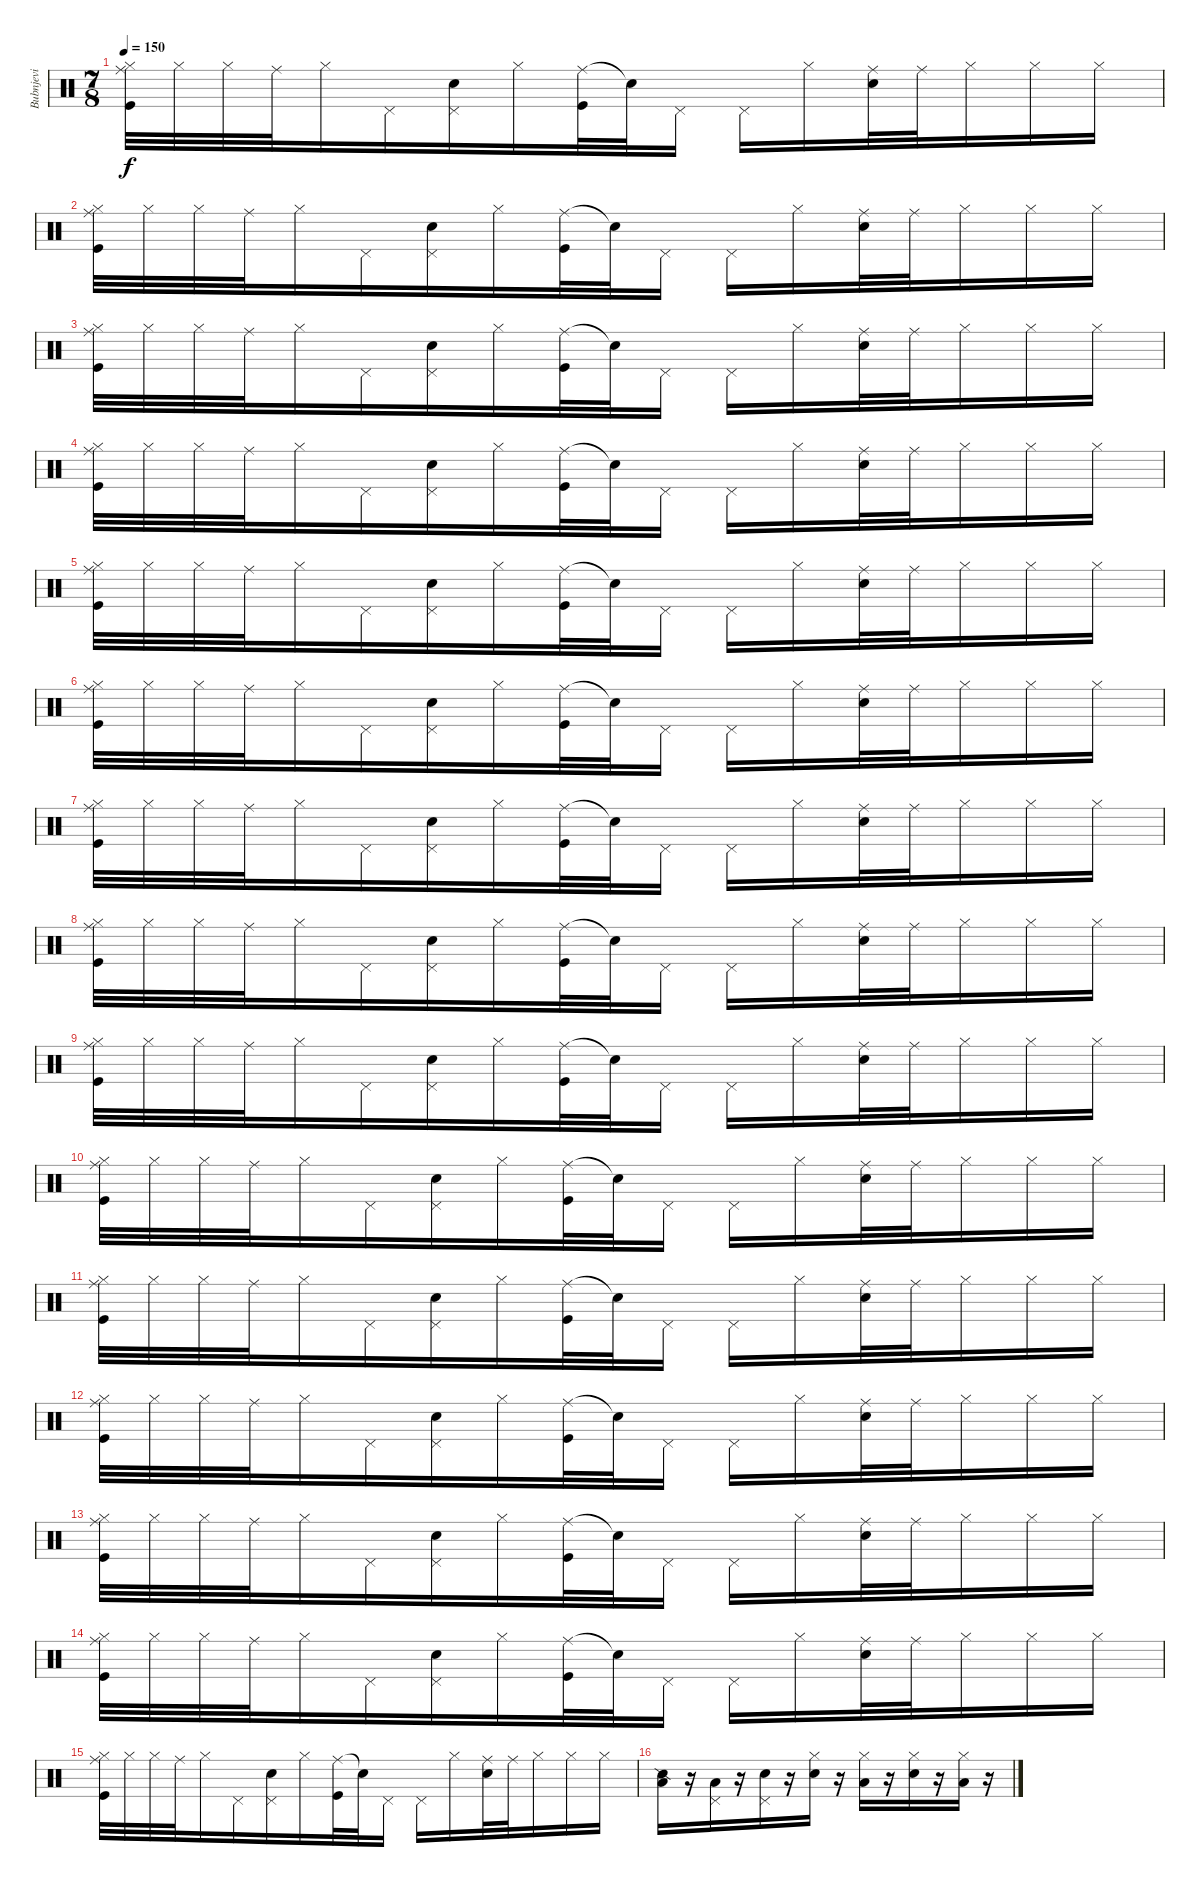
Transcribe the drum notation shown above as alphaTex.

\track ("Bubnjevi" "Bubnjevi") {instrument percussion}
\staff {score}
\articulation defaults
\ts (7 8)
\tempo 150
\clef neutral
\ks c
("Hi-Hat (closed)" "Ride (middle)" "Kick (hit)").32{dy f} "Hi-Hat (closed)".32 "Hi-Hat (closed)".32 "Ride (middle)".32 "Hi-Hat (closed)".16 "Pedal Hi-Hat (hit)".16 ("Pedal Hi-Hat (hit)" "Snare (hit) 2").16 "Hi-Hat (closed)".16 ("Ride (middle)" "Kick (hit)").32 "Snare (hit)"{t}.32 "Pedal Hi-Hat (hit)".16 "Pedal Hi-Hat (hit)".16 "Hi-Hat (closed)".16 ("Ride (middle)" "Snare (hit) 2").32 "Ride (middle)".32 "Hi-Hat (closed)".16 "Hi-Hat (closed)".16 "Hi-Hat (closed)".16 |
("Hi-Hat (closed)" "Ride (middle)" "Kick (hit)").32 "Hi-Hat (closed)".32 "Hi-Hat (closed)".32 "Ride (middle)".32 "Hi-Hat (closed)".16 "Pedal Hi-Hat (hit)".16 ("Pedal Hi-Hat (hit)" "Snare (hit) 2").16 "Hi-Hat (closed)".16 ("Ride (middle)" "Kick (hit)").32 "Snare (hit)"{t}.32 "Pedal Hi-Hat (hit)".16 "Pedal Hi-Hat (hit)".16 "Hi-Hat (closed)".16 ("Ride (middle)" "Snare (hit) 2").32 "Ride (middle)".32 "Hi-Hat (closed)".16 "Hi-Hat (closed)".16 "Hi-Hat (closed)".16 |
("Hi-Hat (closed)" "Ride (middle)" "Kick (hit)").32 "Hi-Hat (closed)".32 "Hi-Hat (closed)".32 "Ride (middle)".32 "Hi-Hat (closed)".16 "Pedal Hi-Hat (hit)".16 ("Pedal Hi-Hat (hit)" "Snare (hit) 2").16 "Hi-Hat (closed)".16 ("Ride (middle)" "Kick (hit)").32 "Snare (hit)"{t}.32 "Pedal Hi-Hat (hit)".16 "Pedal Hi-Hat (hit)".16 "Hi-Hat (closed)".16 ("Ride (middle)" "Snare (hit) 2").32 "Ride (middle)".32 "Hi-Hat (closed)".16 "Hi-Hat (closed)".16 "Hi-Hat (closed)".16 |
("Hi-Hat (closed)" "Ride (middle)" "Kick (hit)").32 "Hi-Hat (closed)".32 "Hi-Hat (closed)".32 "Ride (middle)".32 "Hi-Hat (closed)".16 "Pedal Hi-Hat (hit)".16 ("Pedal Hi-Hat (hit)" "Snare (hit) 2").16 "Hi-Hat (closed)".16 ("Ride (middle)" "Kick (hit)").32 "Snare (hit)"{t}.32 "Pedal Hi-Hat (hit)".16 "Pedal Hi-Hat (hit)".16 "Hi-Hat (closed)".16 ("Ride (middle)" "Snare (hit) 2").32 "Ride (middle)".32 "Hi-Hat (closed)".16 "Hi-Hat (closed)".16 "Hi-Hat (closed)".16 |
("Hi-Hat (closed)" "Ride (middle)" "Kick (hit)").32 "Hi-Hat (closed)".32 "Hi-Hat (closed)".32 "Ride (middle)".32 "Hi-Hat (closed)".16 "Pedal Hi-Hat (hit)".16 ("Pedal Hi-Hat (hit)" "Snare (hit) 2").16 "Hi-Hat (closed)".16 ("Ride (middle)" "Kick (hit)").32 "Snare (hit)"{t}.32 "Pedal Hi-Hat (hit)".16 "Pedal Hi-Hat (hit)".16 "Hi-Hat (closed)".16 ("Ride (middle)" "Snare (hit) 2").32 "Ride (middle)".32 "Hi-Hat (closed)".16 "Hi-Hat (closed)".16 "Hi-Hat (closed)".16 |
("Hi-Hat (closed)" "Ride (middle)" "Kick (hit)").32 "Hi-Hat (closed)".32 "Hi-Hat (closed)".32 "Ride (middle)".32 "Hi-Hat (closed)".16 "Pedal Hi-Hat (hit)".16 ("Pedal Hi-Hat (hit)" "Snare (hit) 2").16 "Hi-Hat (closed)".16 ("Ride (middle)" "Kick (hit)").32 "Snare (hit)"{t}.32 "Pedal Hi-Hat (hit)".16 "Pedal Hi-Hat (hit)".16 "Hi-Hat (closed)".16 ("Ride (middle)" "Snare (hit) 2").32 "Ride (middle)".32 "Hi-Hat (closed)".16 "Hi-Hat (closed)".16 "Hi-Hat (closed)".16 |
("Hi-Hat (closed)" "Ride (middle)" "Kick (hit)").32 "Hi-Hat (closed)".32 "Hi-Hat (closed)".32 "Ride (middle)".32 "Hi-Hat (closed)".16 "Pedal Hi-Hat (hit)".16 ("Pedal Hi-Hat (hit)" "Snare (hit) 2").16 "Hi-Hat (closed)".16 ("Ride (middle)" "Kick (hit)").32 "Snare (hit)"{t}.32 "Pedal Hi-Hat (hit)".16 "Pedal Hi-Hat (hit)".16 "Hi-Hat (closed)".16 ("Ride (middle)" "Snare (hit) 2").32 "Ride (middle)".32 "Hi-Hat (closed)".16 "Hi-Hat (closed)".16 "Hi-Hat (closed)".16 |
("Hi-Hat (closed)" "Ride (middle)" "Kick (hit)").32 "Hi-Hat (closed)".32 "Hi-Hat (closed)".32 "Ride (middle)".32 "Hi-Hat (closed)".16 "Pedal Hi-Hat (hit)".16 ("Pedal Hi-Hat (hit)" "Snare (hit) 2").16 "Hi-Hat (closed)".16 ("Ride (middle)" "Kick (hit)").32 "Snare (hit)"{t}.32 "Pedal Hi-Hat (hit)".16 "Pedal Hi-Hat (hit)".16 "Hi-Hat (closed)".16 ("Ride (middle)" "Snare (hit) 2").32 "Ride (middle)".32 "Hi-Hat (closed)".16 "Hi-Hat (closed)".16 "Hi-Hat (closed)".16 |
("Hi-Hat (closed)" "Ride (middle)" "Kick (hit)").32 "Hi-Hat (closed)".32 "Hi-Hat (closed)".32 "Ride (middle)".32 "Hi-Hat (closed)".16 "Pedal Hi-Hat (hit)".16 ("Pedal Hi-Hat (hit)" "Snare (hit) 2").16 "Hi-Hat (closed)".16 ("Ride (middle)" "Kick (hit)").32 "Snare (hit)"{t}.32 "Pedal Hi-Hat (hit)".16 "Pedal Hi-Hat (hit)".16 "Hi-Hat (closed)".16 ("Ride (middle)" "Snare (hit) 2").32 "Ride (middle)".32 "Hi-Hat (closed)".16 "Hi-Hat (closed)".16 "Hi-Hat (closed)".16 |
("Hi-Hat (closed)" "Ride (middle)" "Kick (hit)").32 "Hi-Hat (closed)".32 "Hi-Hat (closed)".32 "Ride (middle)".32 "Hi-Hat (closed)".16 "Pedal Hi-Hat (hit)".16 ("Pedal Hi-Hat (hit)" "Snare (hit) 2").16 "Hi-Hat (closed)".16 ("Ride (middle)" "Kick (hit)").32 "Snare (hit)"{t}.32 "Pedal Hi-Hat (hit)".16 "Pedal Hi-Hat (hit)".16 "Hi-Hat (closed)".16 ("Ride (middle)" "Snare (hit) 2").32 "Ride (middle)".32 "Hi-Hat (closed)".16 "Hi-Hat (closed)".16 "Hi-Hat (closed)".16 |
("Hi-Hat (closed)" "Ride (middle)" "Kick (hit)").32 "Hi-Hat (closed)".32 "Hi-Hat (closed)".32 "Ride (middle)".32 "Hi-Hat (closed)".16 "Pedal Hi-Hat (hit)".16 ("Pedal Hi-Hat (hit)" "Snare (hit) 2").16 "Hi-Hat (closed)".16 ("Ride (middle)" "Kick (hit)").32 "Snare (hit)"{t}.32 "Pedal Hi-Hat (hit)".16 "Pedal Hi-Hat (hit)".16 "Hi-Hat (closed)".16 ("Ride (middle)" "Snare (hit) 2").32 "Ride (middle)".32 "Hi-Hat (closed)".16 "Hi-Hat (closed)".16 "Hi-Hat (closed)".16 |
("Hi-Hat (closed)" "Ride (middle)" "Kick (hit)").32 "Hi-Hat (closed)".32 "Hi-Hat (closed)".32 "Ride (middle)".32 "Hi-Hat (closed)".16 "Pedal Hi-Hat (hit)".16 ("Pedal Hi-Hat (hit)" "Snare (hit) 2").16 "Hi-Hat (closed)".16 ("Ride (middle)" "Kick (hit)").32 "Snare (hit)"{t}.32 "Pedal Hi-Hat (hit)".16 "Pedal Hi-Hat (hit)".16 "Hi-Hat (closed)".16 ("Ride (middle)" "Snare (hit) 2").32 "Ride (middle)".32 "Hi-Hat (closed)".16 "Hi-Hat (closed)".16 "Hi-Hat (closed)".16 |
("Hi-Hat (closed)" "Ride (middle)" "Kick (hit)").32 "Hi-Hat (closed)".32 "Hi-Hat (closed)".32 "Ride (middle)".32 "Hi-Hat (closed)".16 "Pedal Hi-Hat (hit)".16 ("Pedal Hi-Hat (hit)" "Snare (hit) 2").16 "Hi-Hat (closed)".16 ("Ride (middle)" "Kick (hit)").32 "Snare (hit)"{t}.32 "Pedal Hi-Hat (hit)".16 "Pedal Hi-Hat (hit)".16 "Hi-Hat (closed)".16 ("Ride (middle)" "Snare (hit) 2").32 "Ride (middle)".32 "Hi-Hat (closed)".16 "Hi-Hat (closed)".16 "Hi-Hat (closed)".16 |
("Hi-Hat (closed)" "Ride (middle)" "Kick (hit)").32 "Hi-Hat (closed)".32 "Hi-Hat (closed)".32 "Ride (middle)".32 "Hi-Hat (closed)".16 "Pedal Hi-Hat (hit)".16 ("Pedal Hi-Hat (hit)" "Snare (hit) 2").16 "Hi-Hat (closed)".16 ("Ride (middle)" "Kick (hit)").32 "Snare (hit)"{t}.32 "Pedal Hi-Hat (hit)".16 "Pedal Hi-Hat (hit)".16 "Hi-Hat (closed)".16 ("Ride (middle)" "Snare (hit) 2").32 "Ride (middle)".32 "Hi-Hat (closed)".16 "Hi-Hat (closed)".16 "Hi-Hat (closed)".16 |
("Hi-Hat (closed)" "Ride (middle)" "Kick (hit)").32 "Hi-Hat (closed)".32 "Hi-Hat (closed)".32 "Ride (middle)".32 "Hi-Hat (closed)".16 "Pedal Hi-Hat (hit)".16 ("Pedal Hi-Hat (hit)" "Snare (hit) 2").16 "Hi-Hat (closed)".16 ("Ride (middle)" "Kick (hit)").32 "Snare (hit)"{t}.32 "Pedal Hi-Hat (hit)".16 "Pedal Hi-Hat (hit)".16 "Hi-Hat (closed)".16 ("Ride (middle)" "Snare (hit) 2").32 "Ride (middle)".32 "Hi-Hat (closed)".16 "Hi-Hat (closed)".16 "Hi-Hat (closed)".16 |
("Low Tom (hit)" "Snare (side stick) 2").16 r.16 ("Pedal Hi-Hat (hit)" "Low Tom (hit)").16 r.16 ("Pedal Hi-Hat (hit)" "Snare (hit) 2").16 r.16 ("Hi-Hat (closed)" "Snare (hit) 2").16 r.16 ("Hi-Hat (closed)" "Low Tom (hit)").16 r.16 ("Hi-Hat (closed)" "Snare (hit) 2").16 r.16 ("Hi-Hat (closed)" "Low Tom (hit)").16 r.16
